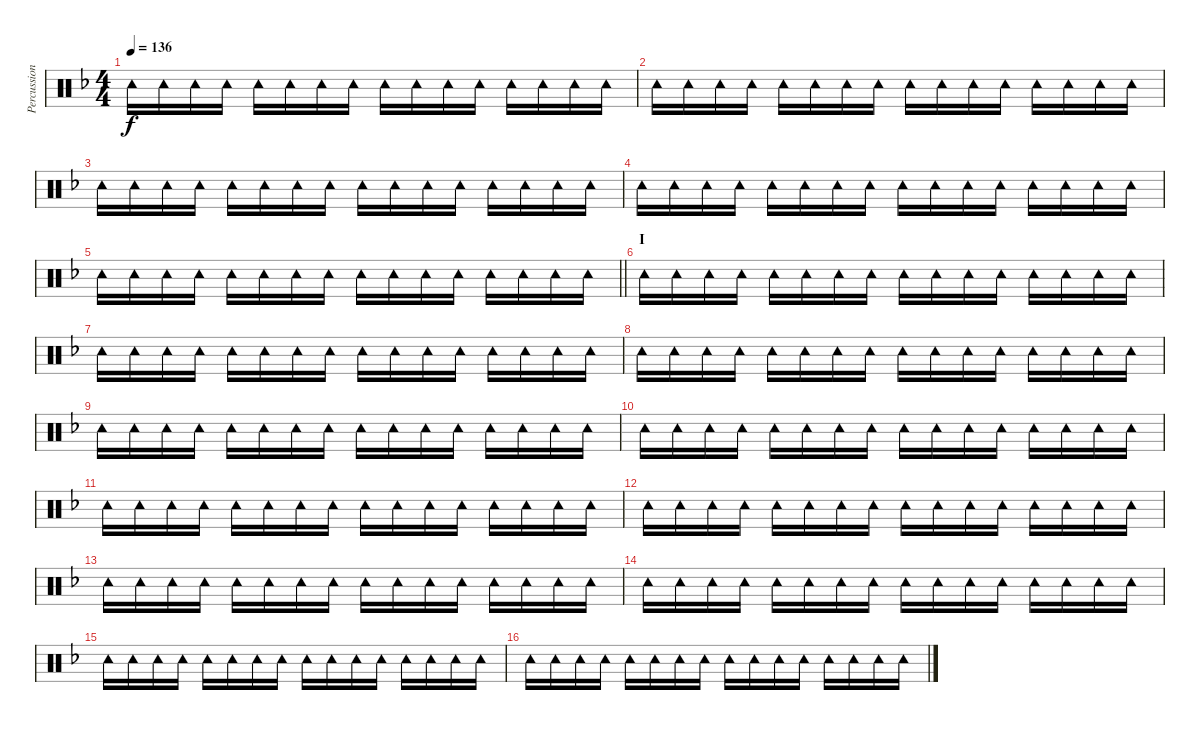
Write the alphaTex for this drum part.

\track ("Percussion" "Percussion") {instrument percussion}
\staff {score}
\articulation defaults
\ts (4 4)
\tempo 136
\clef neutral
\ks dminor "Tambourine (hit)".16{dy f} "Tambourine (hit)".16 "Tambourine (hit)".16 "Tambourine (hit)".16 "Tambourine (hit)".16 "Tambourine (hit)".16 "Tambourine (hit)".16 "Tambourine (hit)".16 "Tambourine (hit)".16 "Tambourine (hit)".16 "Tambourine (hit)".16 "Tambourine (hit)".16 "Tambourine (hit)".16 "Tambourine (hit)".16 "Tambourine (hit)".16 "Tambourine (hit)".16
|
"Tambourine (hit)".16 "Tambourine (hit)".16 "Tambourine (hit)".16 "Tambourine (hit)".16 "Tambourine (hit)".16 "Tambourine (hit)".16 "Tambourine (hit)".16 "Tambourine (hit)".16 "Tambourine (hit)".16 "Tambourine (hit)".16 "Tambourine (hit)".16 "Tambourine (hit)".16 "Tambourine (hit)".16 "Tambourine (hit)".16 "Tambourine (hit)".16 "Tambourine (hit)".16 |
"Tambourine (hit)".16 "Tambourine (hit)".16 "Tambourine (hit)".16 "Tambourine (hit)".16 "Tambourine (hit)".16 "Tambourine (hit)".16 "Tambourine (hit)".16 "Tambourine (hit)".16 "Tambourine (hit)".16 "Tambourine (hit)".16 "Tambourine (hit)".16 "Tambourine (hit)".16 "Tambourine (hit)".16 "Tambourine (hit)".16 "Tambourine (hit)".16 "Tambourine (hit)".16 |
"Tambourine (hit)".16 "Tambourine (hit)".16 "Tambourine (hit)".16 "Tambourine (hit)".16 "Tambourine (hit)".16 "Tambourine (hit)".16 "Tambourine (hit)".16 "Tambourine (hit)".16 "Tambourine (hit)".16 "Tambourine (hit)".16 "Tambourine (hit)".16 "Tambourine (hit)".16 "Tambourine (hit)".16 "Tambourine (hit)".16 "Tambourine (hit)".16 "Tambourine (hit)".16 |
\barLineRight lightlight "Tambourine (hit)".16 "Tambourine (hit)".16 "Tambourine (hit)".16 "Tambourine (hit)".16 "Tambourine (hit)".16 "Tambourine (hit)".16 "Tambourine (hit)".16 "Tambourine (hit)".16 "Tambourine (hit)".16 "Tambourine (hit)".16 "Tambourine (hit)".16 "Tambourine (hit)".16 "Tambourine (hit)".16 "Tambourine (hit)".16 "Tambourine (hit)".16 "Tambourine (hit)".16
|
\section ("" "I")
"Tambourine (hit)".16 "Tambourine (hit)".16 "Tambourine (hit)".16 "Tambourine (hit)".16 "Tambourine (hit)".16 "Tambourine (hit)".16 "Tambourine (hit)".16 "Tambourine (hit)".16 "Tambourine (hit)".16 "Tambourine (hit)".16 "Tambourine (hit)".16 "Tambourine (hit)".16 "Tambourine (hit)".16 "Tambourine (hit)".16 "Tambourine (hit)".16 "Tambourine (hit)".16 |
"Tambourine (hit)".16 "Tambourine (hit)".16 "Tambourine (hit)".16 "Tambourine (hit)".16 "Tambourine (hit)".16 "Tambourine (hit)".16 "Tambourine (hit)".16 "Tambourine (hit)".16 "Tambourine (hit)".16 "Tambourine (hit)".16 "Tambourine (hit)".16 "Tambourine (hit)".16 "Tambourine (hit)".16 "Tambourine (hit)".16 "Tambourine (hit)".16 "Tambourine (hit)".16 |
"Tambourine (hit)".16 "Tambourine (hit)".16 "Tambourine (hit)".16 "Tambourine (hit)".16 "Tambourine (hit)".16 "Tambourine (hit)".16 "Tambourine (hit)".16 "Tambourine (hit)".16 "Tambourine (hit)".16 "Tambourine (hit)".16 "Tambourine (hit)".16 "Tambourine (hit)".16 "Tambourine (hit)".16 "Tambourine (hit)".16 "Tambourine (hit)".16 "Tambourine (hit)".16 |
"Tambourine (hit)".16 "Tambourine (hit)".16 "Tambourine (hit)".16 "Tambourine (hit)".16 "Tambourine (hit)".16 "Tambourine (hit)".16 "Tambourine (hit)".16 "Tambourine (hit)".16 "Tambourine (hit)".16 "Tambourine (hit)".16 "Tambourine (hit)".16 "Tambourine (hit)".16 "Tambourine (hit)".16 "Tambourine (hit)".16 "Tambourine (hit)".16 "Tambourine (hit)".16 |
"Tambourine (hit)".16 "Tambourine (hit)".16 "Tambourine (hit)".16 "Tambourine (hit)".16 "Tambourine (hit)".16 "Tambourine (hit)".16 "Tambourine (hit)".16 "Tambourine (hit)".16 "Tambourine (hit)".16 "Tambourine (hit)".16 "Tambourine (hit)".16 "Tambourine (hit)".16 "Tambourine (hit)".16 "Tambourine (hit)".16 "Tambourine (hit)".16 "Tambourine (hit)".16 |
"Tambourine (hit)".16 "Tambourine (hit)".16 "Tambourine (hit)".16 "Tambourine (hit)".16 "Tambourine (hit)".16 "Tambourine (hit)".16 "Tambourine (hit)".16 "Tambourine (hit)".16 "Tambourine (hit)".16 "Tambourine (hit)".16 "Tambourine (hit)".16 "Tambourine (hit)".16 "Tambourine (hit)".16 "Tambourine (hit)".16 "Tambourine (hit)".16 "Tambourine (hit)".16 |
"Tambourine (hit)".16 "Tambourine (hit)".16 "Tambourine (hit)".16 "Tambourine (hit)".16 "Tambourine (hit)".16 "Tambourine (hit)".16 "Tambourine (hit)".16 "Tambourine (hit)".16 "Tambourine (hit)".16 "Tambourine (hit)".16 "Tambourine (hit)".16 "Tambourine (hit)".16 "Tambourine (hit)".16 "Tambourine (hit)".16 "Tambourine (hit)".16 "Tambourine (hit)".16 |
"Tambourine (hit)".16 "Tambourine (hit)".16 "Tambourine (hit)".16 "Tambourine (hit)".16 "Tambourine (hit)".16 "Tambourine (hit)".16 "Tambourine (hit)".16 "Tambourine (hit)".16 "Tambourine (hit)".16 "Tambourine (hit)".16 "Tambourine (hit)".16 "Tambourine (hit)".16 "Tambourine (hit)".16 "Tambourine (hit)".16 "Tambourine (hit)".16 "Tambourine (hit)".16 |
"Tambourine (hit)".16 "Tambourine (hit)".16 "Tambourine (hit)".16 "Tambourine (hit)".16 "Tambourine (hit)".16 "Tambourine (hit)".16 "Tambourine (hit)".16 "Tambourine (hit)".16 "Tambourine (hit)".16 "Tambourine (hit)".16 "Tambourine (hit)".16 "Tambourine (hit)".16 "Tambourine (hit)".16 "Tambourine (hit)".16 "Tambourine (hit)".16 "Tambourine (hit)".16 |
"Tambourine (hit)".16 "Tambourine (hit)".16 "Tambourine (hit)".16 "Tambourine (hit)".16 "Tambourine (hit)".16 "Tambourine (hit)".16 "Tambourine (hit)".16 "Tambourine (hit)".16 "Tambourine (hit)".16 "Tambourine (hit)".16 "Tambourine (hit)".16 "Tambourine (hit)".16 "Tambourine (hit)".16 "Tambourine (hit)".16 "Tambourine (hit)".16 "Tambourine (hit)".16 |
"Tambourine (hit)".16 "Tambourine (hit)".16 "Tambourine (hit)".16 "Tambourine (hit)".16 "Tambourine (hit)".16 "Tambourine (hit)".16 "Tambourine (hit)".16 "Tambourine (hit)".16 "Tambourine (hit)".16 "Tambourine (hit)".16 "Tambourine (hit)".16 "Tambourine (hit)".16 "Tambourine (hit)".16 "Tambourine (hit)".16 "Tambourine (hit)".16 "Tambourine (hit)".16
